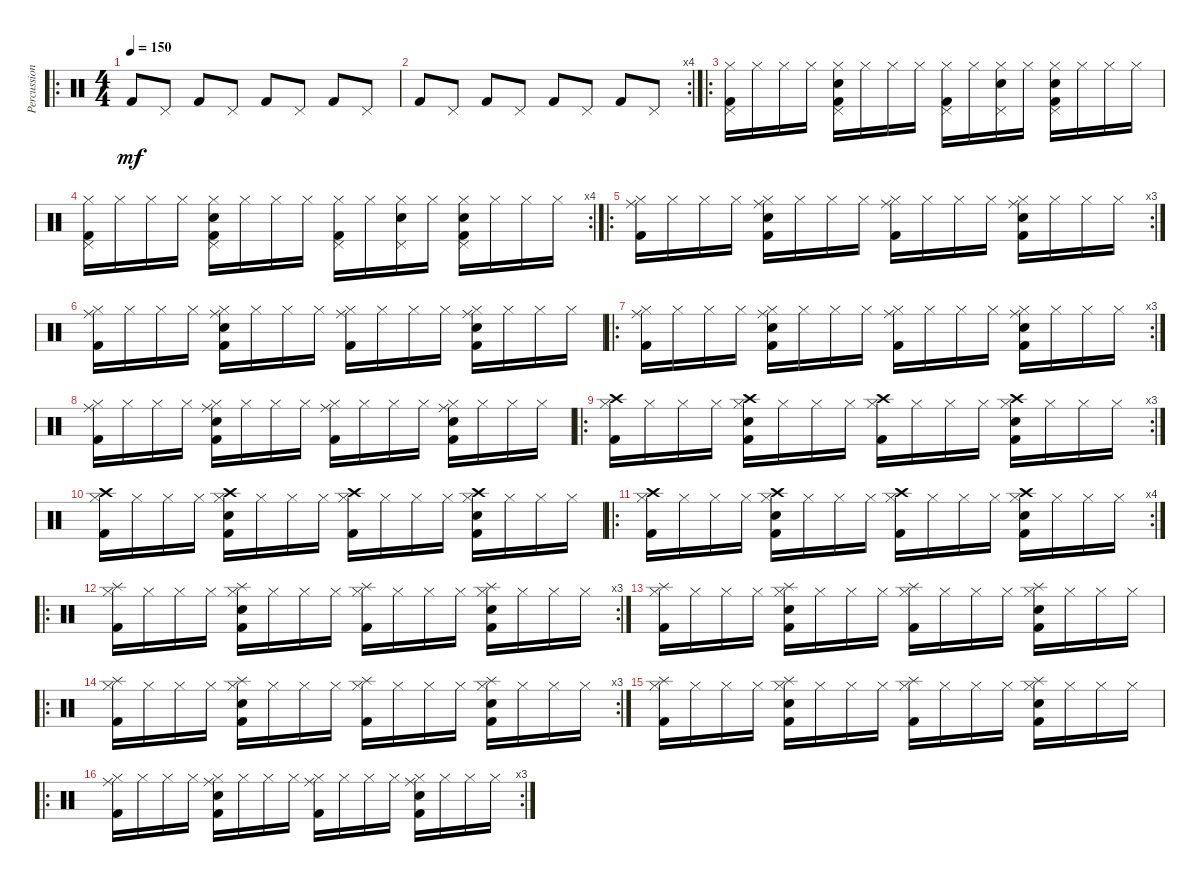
\track ("Percussion" "Percussion") {instrument percussion}
\staff {score}
\articulation defaults
\ro
\ts (4 4)
\tempo 150
\clef neutral
\ks c "Kick (hit) 2".8{dy mf} "Pedal Hi-Hat (hit)".8 "Kick (hit) 2".8 "Pedal Hi-Hat (hit)".8 "Kick (hit) 2".8 "Pedal Hi-Hat (hit)".8 "Kick (hit) 2".8 "Pedal Hi-Hat (hit)".8
|
\rc 4 "Kick (hit) 2".8 "Pedal Hi-Hat (hit)".8 "Kick (hit) 2".8 "Pedal Hi-Hat (hit)".8 "Kick (hit) 2".8 "Pedal Hi-Hat (hit)".8 "Kick (hit) 2".8 "Pedal Hi-Hat (hit)".8
|
\ro
("Hi-Hat (closed)" "Pedal Hi-Hat (hit)" "Kick (hit) 2").16 "Hi-Hat (closed)".16 "Hi-Hat (closed)".16 "Hi-Hat (closed)".16 ("Hi-Hat (closed)" "Pedal Hi-Hat (hit)" "Electric Snare (hit)" "Kick (hit) 2").16 "Hi-Hat (closed)".16 "Hi-Hat (closed)".16 "Hi-Hat (closed)".16 ("Hi-Hat (closed)" "Pedal Hi-Hat (hit)" "Kick (hit) 2").16 "Hi-Hat (closed)".16 ("Hi-Hat (closed)" "Pedal Hi-Hat (hit)" "Electric Snare (hit)").16 "Hi-Hat (closed)".16 ("Hi-Hat (closed)" "Pedal Hi-Hat (hit)" "Electric Snare (hit)" "Kick (hit) 2").16 "Hi-Hat (closed)".16 "Hi-Hat (closed)".16 "Hi-Hat (closed)".16 |
\rc 4
("Hi-Hat (closed)" "Pedal Hi-Hat (hit)" "Kick (hit) 2").16 "Hi-Hat (closed)".16 "Hi-Hat (closed)".16 "Hi-Hat (closed)".16 ("Hi-Hat (closed)" "Pedal Hi-Hat (hit)" "Electric Snare (hit)" "Kick (hit) 2").16 "Hi-Hat (closed)".16 "Hi-Hat (closed)".16 "Hi-Hat (closed)".16 ("Hi-Hat (closed)" "Pedal Hi-Hat (hit)" "Kick (hit) 2").16 "Hi-Hat (closed)".16 ("Hi-Hat (closed)" "Pedal Hi-Hat (hit)" "Electric Snare (hit)").16 "Hi-Hat (closed)".16 ("Hi-Hat (closed)" "Pedal Hi-Hat (hit)" "Electric Snare (hit)" "Kick (hit) 2").16 "Hi-Hat (closed)".16 "Hi-Hat (closed)".16 "Hi-Hat (closed)".16 |
\ro
\rc 3
("Hi-Hat (closed)" "Ride (middle)" "Kick (hit) 2").16 "Hi-Hat (closed)".16 "Hi-Hat (closed)".16 "Hi-Hat (closed)".16 ("Hi-Hat (closed)" "Ride (middle)" "Electric Snare (hit)" "Kick (hit) 2").16 "Hi-Hat (closed)".16 "Hi-Hat (closed)".16 "Hi-Hat (closed)".16 ("Hi-Hat (closed)" "Ride (middle)" "Kick (hit) 2").16 "Hi-Hat (closed)".16 "Hi-Hat (closed)".16 "Hi-Hat (closed)".16 ("Hi-Hat (closed)" "Ride (middle)" "Electric Snare (hit)" "Kick (hit) 2").16 "Hi-Hat (closed)".16 "Hi-Hat (closed)".16 "Hi-Hat (closed)".16 |
("Hi-Hat (closed)" "Ride (middle)" "Kick (hit) 2").16 "Hi-Hat (closed)".16 "Hi-Hat (closed)".16 "Hi-Hat (closed)".16 ("Hi-Hat (closed)" "Ride (middle)" "Electric Snare (hit)" "Kick (hit) 2").16 "Hi-Hat (closed)".16 "Hi-Hat (closed)".16 "Hi-Hat (closed)".16 ("Hi-Hat (closed)" "Ride (middle)" "Kick (hit) 2").16 "Hi-Hat (closed)".16 "Hi-Hat (closed)".16 "Hi-Hat (closed)".16 ("Hi-Hat (closed)" "Ride (middle)" "Electric Snare (hit)" "Kick (hit) 2").16 "Hi-Hat (closed)".16 "Hi-Hat (closed)".16 "Hi-Hat (closed)".16 |
\ro
\rc 3
("Hi-Hat (closed)" "Ride (middle)" "Kick (hit) 2").16 "Hi-Hat (closed)".16 "Hi-Hat (closed)".16 "Hi-Hat (closed)".16 ("Hi-Hat (closed)" "Ride (middle)" "Electric Snare (hit)" "Kick (hit) 2").16 "Hi-Hat (closed)".16 "Hi-Hat (closed)".16 "Hi-Hat (closed)".16 ("Hi-Hat (closed)" "Ride (middle)" "Kick (hit) 2").16 "Hi-Hat (closed)".16 "Hi-Hat (closed)".16 "Hi-Hat (closed)".16 ("Hi-Hat (closed)" "Ride (middle)" "Electric Snare (hit)" "Kick (hit) 2").16 "Hi-Hat (closed)".16 "Hi-Hat (closed)".16 "Hi-Hat (closed)".16 |
("Hi-Hat (closed)" "Ride (middle)" "Kick (hit) 2").16 "Hi-Hat (closed)".16 "Hi-Hat (closed)".16 "Hi-Hat (closed)".16 ("Hi-Hat (closed)" "Ride (middle)" "Electric Snare (hit)" "Kick (hit) 2").16 "Hi-Hat (closed)".16 "Hi-Hat (closed)".16 "Hi-Hat (closed)".16 ("Hi-Hat (closed)" "Ride (middle)" "Kick (hit) 2").16 "Hi-Hat (closed)".16 "Hi-Hat (closed)".16 "Hi-Hat (closed)".16 ("Hi-Hat (closed)" "Ride (middle)" "Electric Snare (hit)" "Kick (hit) 2").16 "Hi-Hat (closed)".16 "Hi-Hat (closed)".16 "Hi-Hat (closed)".16 |
\ro
\rc 3
("Hi-Hat (closed)" "Crash high (hit)" "Kick (hit) 2").16 "Hi-Hat (closed)".16 "Hi-Hat (closed)".16 "Hi-Hat (closed)".16 ("Hi-Hat (closed)" "Crash high (hit)" "Electric Snare (hit)" "Kick (hit) 2").16 "Hi-Hat (closed)".16 "Hi-Hat (closed)".16 "Hi-Hat (closed)".16 ("Hi-Hat (closed)" "Crash high (hit)" "Kick (hit) 2").16 "Hi-Hat (closed)".16 "Hi-Hat (closed)".16 "Hi-Hat (closed)".16 ("Hi-Hat (closed)" "Crash high (hit)" "Electric Snare (hit)" "Kick (hit) 2").16 "Hi-Hat (closed)".16 "Hi-Hat (closed)".16 "Hi-Hat (closed)".16 |
("Hi-Hat (closed)" "Crash high (hit)" "Kick (hit) 2").16 "Hi-Hat (closed)".16 "Hi-Hat (closed)".16 "Hi-Hat (closed)".16 ("Hi-Hat (closed)" "Crash high (hit)" "Electric Snare (hit)" "Kick (hit) 2").16 "Hi-Hat (closed)".16 "Hi-Hat (closed)".16 "Hi-Hat (closed)".16 ("Hi-Hat (closed)" "Crash high (hit)" "Kick (hit) 2").16 "Hi-Hat (closed)".16 "Hi-Hat (closed)".16 "Hi-Hat (closed)".16 ("Hi-Hat (closed)" "Crash high (hit)" "Electric Snare (hit)" "Kick (hit) 2").16 "Hi-Hat (closed)".16 "Hi-Hat (closed)".16 "Hi-Hat (closed)".16 |
\ro
\rc 4
("Hi-Hat (closed)" "Crash high (hit)" "Kick (hit) 2").16 "Hi-Hat (closed)".16 "Hi-Hat (closed)".16 "Hi-Hat (closed)".16 ("Hi-Hat (closed)" "Crash high (hit)" "Electric Snare (hit)" "Kick (hit) 2").16 "Hi-Hat (closed)".16 "Hi-Hat (closed)".16 "Hi-Hat (closed)".16 ("Hi-Hat (closed)" "Crash high (hit)" "Kick (hit) 2").16 "Hi-Hat (closed)".16 "Hi-Hat (closed)".16 "Hi-Hat (closed)".16 ("Hi-Hat (closed)" "Crash high (hit)" "Electric Snare (hit)" "Kick (hit) 2").16 "Hi-Hat (closed)".16 "Hi-Hat (closed)".16 "Hi-Hat (closed)".16 |
\ro
\rc 3
("Hi-Hat (closed)" "Splash (hit)" "Kick (hit) 2").16 "Hi-Hat (closed)".16 "Hi-Hat (closed)".16 "Hi-Hat (closed)".16 ("Hi-Hat (closed)" "Splash (hit)" "Electric Snare (hit)" "Kick (hit) 2").16 "Hi-Hat (closed)".16 "Hi-Hat (closed)".16 "Hi-Hat (closed)".16 ("Hi-Hat (closed)" "Splash (hit)" "Kick (hit) 2").16 "Hi-Hat (closed)".16 "Hi-Hat (closed)".16 "Hi-Hat (closed)".16 ("Hi-Hat (closed)" "Splash (hit)" "Electric Snare (hit)" "Kick (hit) 2").16 "Hi-Hat (closed)".16 "Hi-Hat (closed)".16 "Hi-Hat (closed)".16 |
("Hi-Hat (closed)" "Splash (hit)" "Kick (hit) 2").16 "Hi-Hat (closed)".16 "Hi-Hat (closed)".16 "Hi-Hat (closed)".16 ("Hi-Hat (closed)" "Splash (hit)" "Electric Snare (hit)" "Kick (hit) 2").16 "Hi-Hat (closed)".16 "Hi-Hat (closed)".16 "Hi-Hat (closed)".16 ("Hi-Hat (closed)" "Splash (hit)" "Kick (hit) 2").16 "Hi-Hat (closed)".16 "Hi-Hat (closed)".16 "Hi-Hat (closed)".16 ("Hi-Hat (closed)" "Splash (hit)" "Electric Snare (hit)" "Kick (hit) 2").16 "Hi-Hat (closed)".16 "Hi-Hat (closed)".16 "Hi-Hat (closed)".16 |
\ro
\rc 3
("Hi-Hat (closed)" "Splash (hit)" "Kick (hit) 2").16 "Hi-Hat (closed)".16 "Hi-Hat (closed)".16 "Hi-Hat (closed)".16 ("Hi-Hat (closed)" "Splash (hit)" "Electric Snare (hit)" "Kick (hit) 2").16 "Hi-Hat (closed)".16 "Hi-Hat (closed)".16 "Hi-Hat (closed)".16 ("Hi-Hat (closed)" "Splash (hit)" "Kick (hit) 2").16 "Hi-Hat (closed)".16 "Hi-Hat (closed)".16 "Hi-Hat (closed)".16 ("Hi-Hat (closed)" "Splash (hit)" "Electric Snare (hit)" "Kick (hit) 2").16 "Hi-Hat (closed)".16 "Hi-Hat (closed)".16 "Hi-Hat (closed)".16 |
("Hi-Hat (closed)" "Splash (hit)" "Kick (hit) 2").16 "Hi-Hat (closed)".16 "Hi-Hat (closed)".16 "Hi-Hat (closed)".16 ("Hi-Hat (closed)" "Splash (hit)" "Electric Snare (hit)" "Kick (hit) 2").16 "Hi-Hat (closed)".16 "Hi-Hat (closed)".16 "Hi-Hat (closed)".16 ("Hi-Hat (closed)" "Splash (hit)" "Kick (hit) 2").16 "Hi-Hat (closed)".16 "Hi-Hat (closed)".16 "Hi-Hat (closed)".16 ("Hi-Hat (closed)" "Splash (hit)" "Electric Snare (hit)" "Kick (hit) 2").16 "Hi-Hat (closed)".16 "Hi-Hat (closed)".16 "Hi-Hat (closed)".16 |
\ro
\rc 3
("Hi-Hat (closed)" "Ride (middle)" "Kick (hit) 2").16 "Hi-Hat (closed)".16 "Hi-Hat (closed)".16 "Hi-Hat (closed)".16 ("Hi-Hat (closed)" "Ride (middle)" "Electric Snare (hit)" "Kick (hit) 2").16 "Hi-Hat (closed)".16 "Hi-Hat (closed)".16 "Hi-Hat (closed)".16 ("Hi-Hat (closed)" "Ride (middle)" "Kick (hit) 2").16 "Hi-Hat (closed)".16 "Hi-Hat (closed)".16 "Hi-Hat (closed)".16 ("Hi-Hat (closed)" "Ride (middle)" "Electric Snare (hit)" "Kick (hit) 2").16 "Hi-Hat (closed)".16 "Hi-Hat (closed)".16 "Hi-Hat (closed)".16
